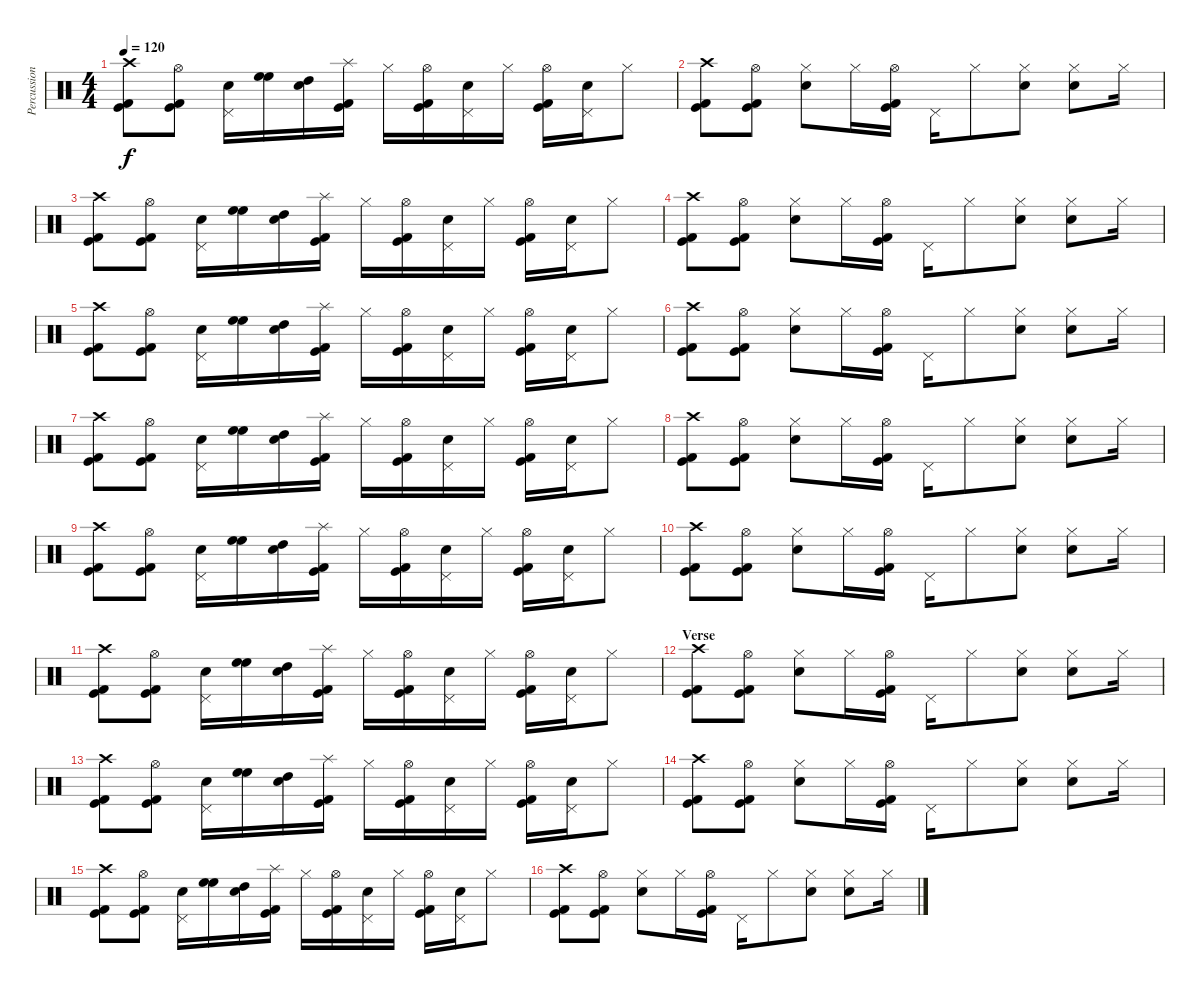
\track ("Percussion" "Percussion") {instrument percussion}
\staff {score}
\articulation defaults
\ts (4 4)
\tempo 120
\clef neutral
\ks c
("Crash high (hit)" "Kick (hit) 2" "Kick (hit)").8{dy f} ("Hi-Hat (open)" "Kick (hit) 2" "Kick (hit)").8 ("Pedal Hi-Hat (hit)" "Snare (hit) 2").16 ("High Floor Tom (hit)" "High Floor Tom (hit)").16 ("Snare (hit) 2" "High Tom (hit)").16 ("Splash (hit)" "Kick (hit) 2" "Kick (hit)").16 "Hi-Hat (closed)".16 ("Hi-Hat (open)" "Kick (hit) 2" "Kick (hit)").16 ("Pedal Hi-Hat (hit)" "Snare (hit) 2").16 "Hi-Hat (closed)".16 ("Hi-Hat (open)" "Kick (hit) 2" "Kick (hit)").16 ("Pedal Hi-Hat (hit)" "Snare (hit) 2").16 "Hi-Hat (closed)".8 |
("Crash high (hit)" "Kick (hit) 2" "Kick (hit)").8 ("Hi-Hat (open)" "Kick (hit) 2" "Kick (hit)").8 ("Hi-Hat (closed)" "Snare (hit) 2").8 "Hi-Hat (closed)".16 ("Hi-Hat (open)" "Kick (hit) 2" "Kick (hit)").16 "Pedal Hi-Hat (hit)".16 "Hi-Hat (closed)".8 ("Hi-Hat (closed)" "Snare (hit) 2").8 ("Hi-Hat (closed)" "Snare (hit) 2").8 "Hi-Hat (closed)".16 |
("Crash high (hit)" "Kick (hit) 2" "Kick (hit)").8 ("Hi-Hat (open)" "Kick (hit) 2" "Kick (hit)").8 ("Pedal Hi-Hat (hit)" "Snare (hit) 2").16 ("High Floor Tom (hit)" "High Floor Tom (hit)").16 ("Snare (hit) 2" "High Tom (hit)").16 ("Splash (hit)" "Kick (hit) 2" "Kick (hit)").16 "Hi-Hat (closed)".16 ("Hi-Hat (open)" "Kick (hit) 2" "Kick (hit)").16 ("Pedal Hi-Hat (hit)" "Snare (hit) 2").16 "Hi-Hat (closed)".16 ("Hi-Hat (open)" "Kick (hit) 2" "Kick (hit)").16 ("Pedal Hi-Hat (hit)" "Snare (hit) 2").16 "Hi-Hat (closed)".8 |
("Crash high (hit)" "Kick (hit) 2" "Kick (hit)").8 ("Hi-Hat (open)" "Kick (hit) 2" "Kick (hit)").8 ("Hi-Hat (closed)" "Snare (hit) 2").8 "Hi-Hat (closed)".16 ("Hi-Hat (open)" "Kick (hit) 2" "Kick (hit)").16 "Pedal Hi-Hat (hit)".16 "Hi-Hat (closed)".8 ("Hi-Hat (closed)" "Snare (hit) 2").8 ("Hi-Hat (closed)" "Snare (hit) 2").8 "Hi-Hat (closed)".16 |
("Crash high (hit)" "Kick (hit) 2" "Kick (hit)").8 ("Hi-Hat (open)" "Kick (hit) 2" "Kick (hit)").8 ("Pedal Hi-Hat (hit)" "Snare (hit) 2").16 ("High Floor Tom (hit)" "High Floor Tom (hit)").16 ("Snare (hit) 2" "High Tom (hit)").16 ("Splash (hit)" "Kick (hit) 2" "Kick (hit)").16 "Hi-Hat (closed)".16 ("Hi-Hat (open)" "Kick (hit) 2" "Kick (hit)").16 ("Pedal Hi-Hat (hit)" "Snare (hit) 2").16 "Hi-Hat (closed)".16 ("Hi-Hat (open)" "Kick (hit) 2" "Kick (hit)").16 ("Pedal Hi-Hat (hit)" "Snare (hit) 2").16 "Hi-Hat (closed)".8 |
("Crash high (hit)" "Kick (hit) 2" "Kick (hit)").8 ("Hi-Hat (open)" "Kick (hit) 2" "Kick (hit)").8 ("Hi-Hat (closed)" "Snare (hit) 2").8 "Hi-Hat (closed)".16 ("Hi-Hat (open)" "Kick (hit) 2" "Kick (hit)").16 "Pedal Hi-Hat (hit)".16 "Hi-Hat (closed)".8 ("Hi-Hat (closed)" "Snare (hit) 2").8 ("Hi-Hat (closed)" "Snare (hit) 2").8 "Hi-Hat (closed)".16 |
("Crash high (hit)" "Kick (hit) 2" "Kick (hit)").8 ("Hi-Hat (open)" "Kick (hit) 2" "Kick (hit)").8 ("Pedal Hi-Hat (hit)" "Snare (hit) 2").16 ("High Floor Tom (hit)" "High Floor Tom (hit)").16 ("Snare (hit) 2" "High Tom (hit)").16 ("Splash (hit)" "Kick (hit) 2" "Kick (hit)").16 "Hi-Hat (closed)".16 ("Hi-Hat (open)" "Kick (hit) 2" "Kick (hit)").16 ("Pedal Hi-Hat (hit)" "Snare (hit) 2").16 "Hi-Hat (closed)".16 ("Hi-Hat (open)" "Kick (hit) 2" "Kick (hit)").16 ("Pedal Hi-Hat (hit)" "Snare (hit) 2").16 "Hi-Hat (closed)".8 |
("Crash high (hit)" "Kick (hit) 2" "Kick (hit)").8 ("Hi-Hat (open)" "Kick (hit) 2" "Kick (hit)").8 ("Hi-Hat (closed)" "Snare (hit) 2").8 "Hi-Hat (closed)".16 ("Hi-Hat (open)" "Kick (hit) 2" "Kick (hit)").16 "Pedal Hi-Hat (hit)".16 "Hi-Hat (closed)".8 ("Hi-Hat (closed)" "Snare (hit) 2").8 ("Hi-Hat (closed)" "Snare (hit) 2").8 "Hi-Hat (closed)".16 |
("Crash high (hit)" "Kick (hit) 2" "Kick (hit)").8 ("Hi-Hat (open)" "Kick (hit) 2" "Kick (hit)").8 ("Pedal Hi-Hat (hit)" "Snare (hit) 2").16 ("High Floor Tom (hit)" "High Floor Tom (hit)").16 ("Snare (hit) 2" "High Tom (hit)").16 ("Splash (hit)" "Kick (hit) 2" "Kick (hit)").16 "Hi-Hat (closed)".16 ("Hi-Hat (open)" "Kick (hit) 2" "Kick (hit)").16 ("Pedal Hi-Hat (hit)" "Snare (hit) 2").16 "Hi-Hat (closed)".16 ("Hi-Hat (open)" "Kick (hit) 2" "Kick (hit)").16 ("Pedal Hi-Hat (hit)" "Snare (hit) 2").16 "Hi-Hat (closed)".8 |
("Crash high (hit)" "Kick (hit) 2" "Kick (hit)").8 ("Hi-Hat (open)" "Kick (hit) 2" "Kick (hit)").8 ("Hi-Hat (closed)" "Snare (hit) 2").8 "Hi-Hat (closed)".16 ("Hi-Hat (open)" "Kick (hit) 2" "Kick (hit)").16 "Pedal Hi-Hat (hit)".16 "Hi-Hat (closed)".8 ("Hi-Hat (closed)" "Snare (hit) 2").8 ("Hi-Hat (closed)" "Snare (hit) 2").8 "Hi-Hat (closed)".16 |
("Crash high (hit)" "Kick (hit) 2" "Kick (hit)").8 ("Hi-Hat (open)" "Kick (hit) 2" "Kick (hit)").8 ("Pedal Hi-Hat (hit)" "Snare (hit) 2").16 ("High Floor Tom (hit)" "High Floor Tom (hit)").16 ("Snare (hit) 2" "High Tom (hit)").16 ("Splash (hit)" "Kick (hit) 2" "Kick (hit)").16 "Hi-Hat (closed)".16 ("Hi-Hat (open)" "Kick (hit) 2" "Kick (hit)").16 ("Pedal Hi-Hat (hit)" "Snare (hit) 2").16 "Hi-Hat (closed)".16 ("Hi-Hat (open)" "Kick (hit) 2" "Kick (hit)").16 ("Pedal Hi-Hat (hit)" "Snare (hit) 2").16 "Hi-Hat (closed)".8 |
\section ("" "Verse")
("Crash high (hit)" "Kick (hit) 2" "Kick (hit)").8 ("Hi-Hat (open)" "Kick (hit) 2" "Kick (hit)").8 ("Hi-Hat (closed)" "Snare (hit) 2").8 "Hi-Hat (closed)".16 ("Hi-Hat (open)" "Kick (hit) 2" "Kick (hit)").16 "Pedal Hi-Hat (hit)".16 "Hi-Hat (closed)".8 ("Hi-Hat (closed)" "Snare (hit) 2").8 ("Hi-Hat (closed)" "Snare (hit) 2").8 "Hi-Hat (closed)".16 |
("Crash high (hit)" "Kick (hit) 2" "Kick (hit)").8 ("Hi-Hat (open)" "Kick (hit) 2" "Kick (hit)").8 ("Pedal Hi-Hat (hit)" "Snare (hit) 2").16 ("High Floor Tom (hit)" "High Floor Tom (hit)").16 ("Snare (hit) 2" "High Tom (hit)").16 ("Splash (hit)" "Kick (hit) 2" "Kick (hit)").16 "Hi-Hat (closed)".16 ("Hi-Hat (open)" "Kick (hit) 2" "Kick (hit)").16 ("Pedal Hi-Hat (hit)" "Snare (hit) 2").16 "Hi-Hat (closed)".16 ("Hi-Hat (open)" "Kick (hit) 2" "Kick (hit)").16 ("Pedal Hi-Hat (hit)" "Snare (hit) 2").16 "Hi-Hat (closed)".8 |
("Crash high (hit)" "Kick (hit) 2" "Kick (hit)").8 ("Hi-Hat (open)" "Kick (hit) 2" "Kick (hit)").8 ("Hi-Hat (closed)" "Snare (hit) 2").8 "Hi-Hat (closed)".16 ("Hi-Hat (open)" "Kick (hit) 2" "Kick (hit)").16 "Pedal Hi-Hat (hit)".16 "Hi-Hat (closed)".8 ("Hi-Hat (closed)" "Snare (hit) 2").8 ("Hi-Hat (closed)" "Snare (hit) 2").8 "Hi-Hat (closed)".16 |
("Crash high (hit)" "Kick (hit) 2" "Kick (hit)").8 ("Hi-Hat (open)" "Kick (hit) 2" "Kick (hit)").8 ("Pedal Hi-Hat (hit)" "Snare (hit) 2").16 ("High Floor Tom (hit)" "High Floor Tom (hit)").16 ("Snare (hit) 2" "High Tom (hit)").16 ("Splash (hit)" "Kick (hit) 2" "Kick (hit)").16 "Hi-Hat (closed)".16 ("Hi-Hat (open)" "Kick (hit) 2" "Kick (hit)").16 ("Pedal Hi-Hat (hit)" "Snare (hit) 2").16 "Hi-Hat (closed)".16 ("Hi-Hat (open)" "Kick (hit) 2" "Kick (hit)").16 ("Pedal Hi-Hat (hit)" "Snare (hit) 2").16 "Hi-Hat (closed)".8 |
("Crash high (hit)" "Kick (hit) 2" "Kick (hit)").8 ("Hi-Hat (open)" "Kick (hit) 2" "Kick (hit)").8 ("Hi-Hat (closed)" "Snare (hit) 2").8 "Hi-Hat (closed)".16 ("Hi-Hat (open)" "Kick (hit) 2" "Kick (hit)").16 "Pedal Hi-Hat (hit)".16 "Hi-Hat (closed)".8 ("Hi-Hat (closed)" "Snare (hit) 2").8 ("Hi-Hat (closed)" "Snare (hit) 2").8 "Hi-Hat (closed)".16
